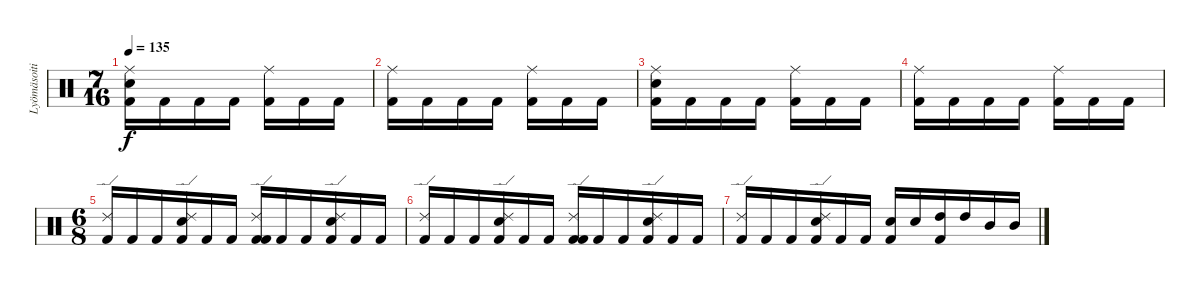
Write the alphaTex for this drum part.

\track ("Lyömäsoitin" "Lyömäsoiti") {instrument percussion}
\staff {score}
\articulation defaults
\ts (7 16)
\tempo 135
\clef neutral
\ks c
("Ride (middle)" "Electric Snare (hit)" "Kick (hit) 2").16{dy f} "Kick (hit) 2".16 "Kick (hit) 2".16 "Kick (hit) 2".16 ("Ride (middle)" "Kick (hit) 2").16 "Kick (hit) 2".16 "Kick (hit) 2".16 |
("Ride (middle)" "Kick (hit) 2").16 "Kick (hit) 2".16 "Kick (hit) 2".16 "Kick (hit) 2".16 ("Ride (middle)" "Kick (hit) 2").16 "Kick (hit) 2".16 "Kick (hit) 2".16 |
("Ride (middle)" "Electric Snare (hit)" "Kick (hit) 2").16 "Kick (hit) 2".16 "Kick (hit) 2".16 "Kick (hit) 2".16 ("Ride (middle)" "Kick (hit) 2").16 "Kick (hit) 2".16 "Kick (hit) 2".16 |
("Ride (middle)" "Kick (hit) 2").16 "Kick (hit) 2".16 "Kick (hit) 2".16 "Kick (hit) 2".16 ("Ride (middle)" "Kick (hit) 2").16 "Kick (hit) 2".16 "Kick (hit) 2".16 |
\ts (6 8)
("Ride (edge) 2" "Kick (hit) 2").16 "Kick (hit) 2".16 "Kick (hit) 2".16 ("Ride (edge) 2" "Electric Snare (hit)" "Kick (hit) 2").16 "Kick (hit) 2".16 "Kick (hit) 2".16 ("Ride (edge) 2" "Kick (hit) 2" "Kick (hit) 2").16 "Kick (hit) 2".16 "Kick (hit) 2".16 ("Ride (edge) 2" "Electric Snare (hit)" "Kick (hit) 2").16 "Kick (hit) 2".16 "Kick (hit) 2".16 |
("Ride (edge) 2" "Kick (hit) 2").16 "Kick (hit) 2".16 "Kick (hit) 2".16 ("Ride (edge) 2" "Electric Snare (hit)" "Kick (hit) 2").16 "Kick (hit) 2".16 "Kick (hit) 2".16 ("Ride (edge) 2" "Kick (hit) 2" "Kick (hit) 2").16 "Kick (hit) 2".16 "Kick (hit) 2".16 ("Ride (edge) 2" "Electric Snare (hit)" "Kick (hit) 2").16 "Kick (hit) 2".16 "Kick (hit) 2".16 |
("Ride (edge) 2" "Kick (hit) 2").16 "Kick (hit) 2".16 "Kick (hit) 2".16 ("Ride (edge) 2" "Electric Snare (hit)" "Kick (hit) 2").16 "Kick (hit) 2".16 "Kick (hit) 2".16 ("Electric Snare (hit)" "Kick (hit) 2").16 "Electric Snare (hit)".16 ("High Tom (hit)" "Kick (hit) 2").16 "High Tom (hit)".16 "Mid Tom (hit)".16 "Mid Tom (hit)".16
